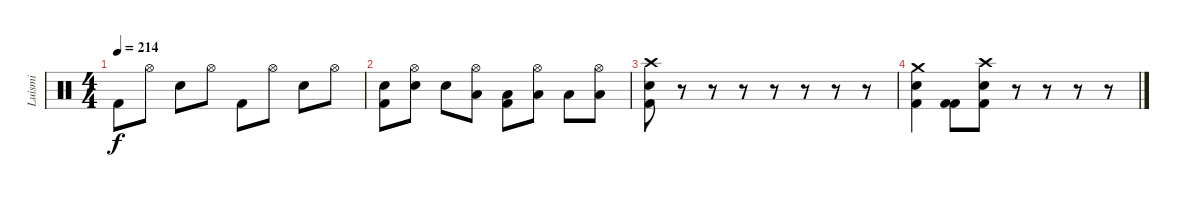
\track ("Luismi" "Luismi") {instrument percussion}
\staff {score}
\articulation defaults
\ts (4 4)
\tempo 214
\clef neutral
\ks c "Kick (hit) 2".8{dy f} "Hi-Hat (open)".8 "Snare (hit) 2".8 "Hi-Hat (open)".8 "Kick (hit) 2".8 "Hi-Hat (open)".8 "Snare (hit) 2".8 "Hi-Hat (open)".8
|
("Snare (hit) 2" "Kick (hit) 2").8 ("Hi-Hat (open)" "Snare (hit) 2").8 "Snare (hit) 2".8 ("Hi-Hat (open)" "Low Tom (hit)").8 ("Low Tom (hit)" "Kick (hit) 2").8 ("Hi-Hat (open)" "Low Floor Tom (hit)").8 "Low Floor Tom (hit)".8 ("Hi-Hat (open)" "Low Floor Tom (hit)").8 |
("Crash high (hit)" "Snare (hit) 2" "Kick (hit) 2").8 r.8 r.8 r.8 r.8 r.8 r.8 r.8 |
("Crash medium (hit)" "Snare (hit) 2" "Kick (hit) 2").4 ("Kick (hit) 2" "Kick (hit) 2").8 ("Crash high (hit)" "Snare (hit) 2" "Kick (hit) 2").8 r.8 r.8 r.8 r.8
